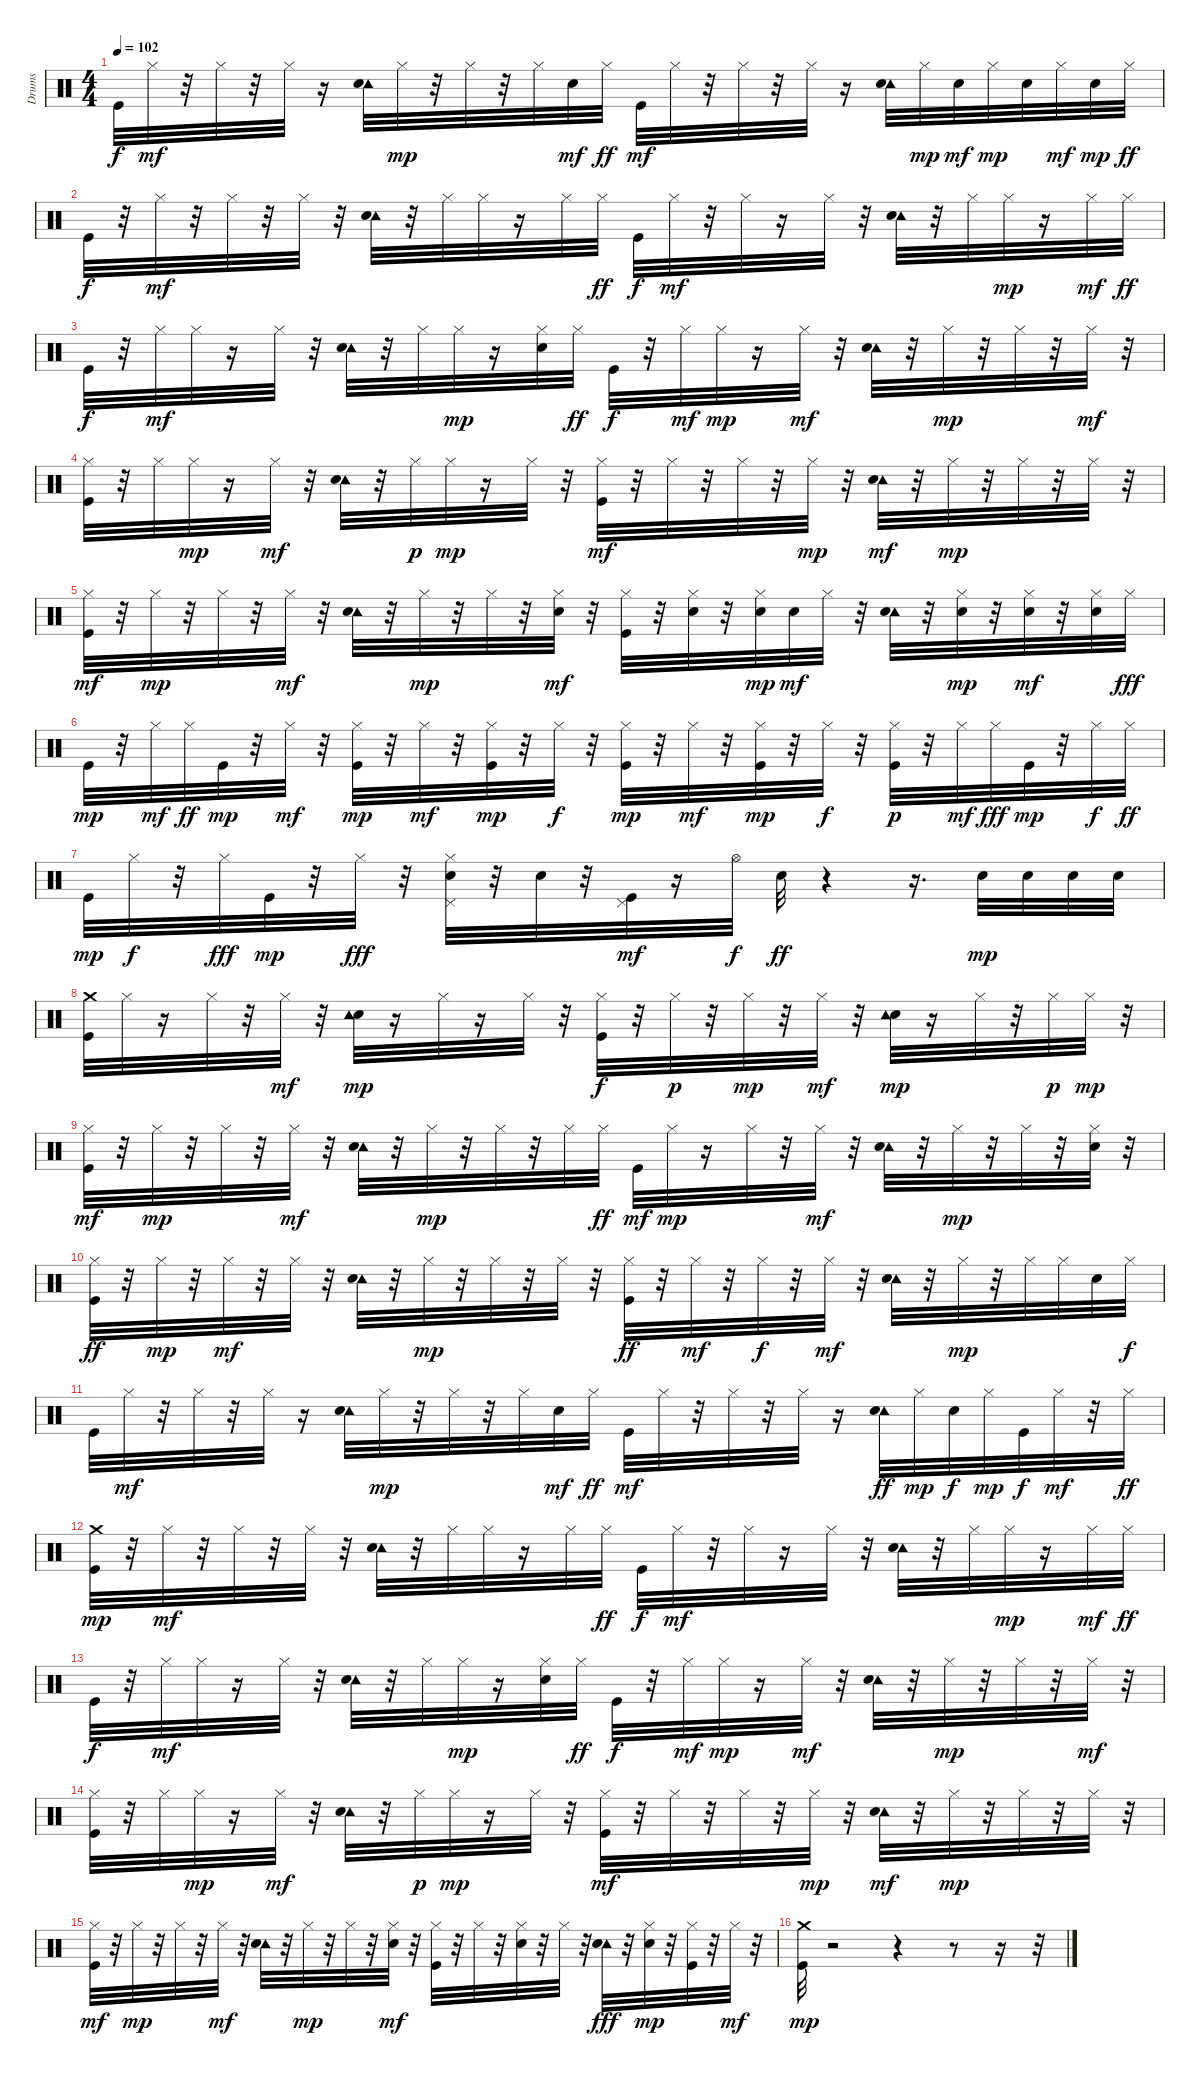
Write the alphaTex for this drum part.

\track ("Drums" "Drums") {instrument percussion}
\staff {score}
\articulation defaults
\ts (4 4)
\tempo 102
\clef neutral
\ks c "Kick (hit)".32{dy f} "Hi-Hat (closed)".32{dy mf}
r.32 "Hi-Hat (closed)".32 r.32 "Hi-Hat (closed)".32 r.16 ("Tambourine (hit)" "Electric Snare (hit)").32 "Hi-Hat (closed)".32{dy mp} r.32 "Hi-Hat (closed)".32 r.32 "Hi-Hat (closed)".32 "Snare (hit) 2".32{dy mf} "Hi-Hat (closed)".32{dy ff} "Kick (hit)".32{dy mf} "Hi-Hat (closed)".32 r.32 "Hi-Hat (closed)".32 r.32 "Hi-Hat (closed)".32 r.16 ("Tambourine (hit)" "Electric Snare (hit)").32 "Hi-Hat (closed)".32{dy mp} "Snare (hit) 2".32{dy mf} "Hi-Hat (closed)".32{dy mp} "Snare (hit) 2".32 "Hi-Hat (closed)".32{dy mf} "Snare (hit) 2".32{dy mp} "Hi-Hat (closed)".32{dy ff} |
"Kick (hit)".32{dy f} r.32 "Hi-Hat (closed)".32{dy mf} r.32 "Hi-Hat (closed)".32 r.32 "Hi-Hat (closed)".32 r.32 ("Tambourine (hit)" "Electric Snare (hit)").32 r.32 "Hi-Hat (closed)".32 "Hi-Hat (closed)".32 r.16 "Hi-Hat (closed)".32 "Hi-Hat (closed)".32{dy ff} "Kick (hit)".32{dy f} "Hi-Hat (closed)".32{dy mf} r.32 "Hi-Hat (closed)".32 r.16 "Hi-Hat (closed)".32 r.32 ("Tambourine (hit)" "Electric Snare (hit)").32 r.32 "Hi-Hat (closed)".32 "Hi-Hat (closed)".32{dy mp} r.16 "Hi-Hat (closed)".32{dy mf} "Hi-Hat (closed)".32{dy ff} |
"Kick (hit)".32{dy f} r.32 "Hi-Hat (closed)".32{dy mf} "Hi-Hat (closed)".32 r.16 "Hi-Hat (closed)".32 r.32 ("Tambourine (hit)" "Electric Snare (hit)").32 r.32 "Hi-Hat (closed)".32 "Hi-Hat (closed)".32{dy mp} r.16 ("Snare (hit) 2" "Hi-Hat (closed)").32 "Hi-Hat (closed)".32{dy ff} "Kick (hit)".32{dy f} r.32 "Hi-Hat (closed)".32{dy mf} "Hi-Hat (closed)".32{dy mp} r.16 "Hi-Hat (closed)".32{dy mf} r.32 ("Tambourine (hit)" "Electric Snare (hit)").32 r.32 "Hi-Hat (closed)".32{dy mp} r.32 "Hi-Hat (closed)".32 r.32 "Hi-Hat (closed)".32{dy mf} r.32 |
("Hi-Hat (closed)" "Kick (hit)").32 r.32 "Hi-Hat (closed)".32 "Hi-Hat (closed)".32{dy mp} r.16 "Hi-Hat (closed)".32{dy mf} r.32 ("Tambourine (hit)" "Electric Snare (hit)").32 r.32 "Hi-Hat (closed)".32{dy p} "Hi-Hat (closed)".32{dy mp} r.16 "Hi-Hat (closed)".32 r.32 ("Hi-Hat (closed)" "Kick (hit)").32{dy mf} r.32 "Hi-Hat (closed)".32 r.32 "Hi-Hat (closed)".32 r.32 "Hi-Hat (closed)".32{dy mp} r.32 ("Tambourine (hit)" "Electric Snare (hit)").32{dy mf} r.32 "Hi-Hat (closed)".32{dy mp} r.32 "Hi-Hat (closed)".32 r.32 "Hi-Hat (closed)".32 r.32 |
("Hi-Hat (closed)" "Kick (hit)").32{dy mf} r.32 "Hi-Hat (closed)".32{dy mp} r.32 "Hi-Hat (closed)".32 r.32 "Hi-Hat (closed)".32{dy mf} r.32 ("Tambourine (hit)" "Electric Snare (hit)").32 r.32 "Hi-Hat (closed)".32{dy mp} r.32 "Hi-Hat (closed)".32 r.32 ("Hi-Hat (closed)" "Electric Snare (hit)").32{dy mf} r.32 ("Hi-Hat (closed)" "Kick (hit)").32 r.32 ("Snare (hit) 2" "Hi-Hat (closed)").32 r.32 ("Snare (hit) 2" "Hi-Hat (closed)").32{dy mp} "Snare (hit) 2".32{dy mf} "Hi-Hat (closed)".32 r.32 ("Tambourine (hit)" "Electric Snare (hit)").32 r.32 ("Hi-Hat (closed)" "Snare (hit) 2").32{dy mp} r.32 ("Snare (hit) 2" "Hi-Hat (closed)").32{dy mf} r.32 ("Snare (hit) 2" "Hi-Hat (closed)").32 "Hi-Hat (closed)".32{dy fff} |
"Kick (hit)".32{dy mp} r.32 "Hi-Hat (closed)".32{dy mf} "Hi-Hat (closed)".32{dy ff} "Kick (hit)".32{dy mp} r.32 "Hi-Hat (closed)".32{dy mf} r.32 ("Hi-Hat (closed)" "Kick (hit)").32{dy mp} r.32 "Hi-Hat (closed)".32{dy mf} r.32 ("Hi-Hat (closed)" "Kick (hit)").32{dy mp} r.32 "Hi-Hat (closed)".32{dy f} r.32 ("Hi-Hat (closed)" "Kick (hit)").32{dy mp} r.32 "Hi-Hat (closed)".32{dy mf} r.32 ("Hi-Hat (closed)" "Kick (hit)").32{dy mp} r.32 "Hi-Hat (closed)".32{dy f} r.32 ("Hi-Hat (closed)" "Kick (hit)").32{dy p} r.32 "Hi-Hat (closed)".32{dy mf} "Hi-Hat (closed)".32{dy fff} "Kick (hit)".32{dy mp} r.32 "Hi-Hat (closed)".32{dy f} "Hi-Hat (closed)".32{dy ff} |
"Kick (hit)".32{dy mp} "Hi-Hat (closed)".32{dy f} r.32 "Hi-Hat (closed)".32{dy fff} "Kick (hit)".32{dy mp} r.32 "Hi-Hat (closed)".32{dy fff} r.32 ("Pedal Hi-Hat (hit)" "Hi-Hat (closed)" "Electric Snare (hit)").32 r.32 "Electric Snare (hit)".32 r.32 ("Pedal Hi-Hat (hit)" "Kick (hit)").32{dy mf} r.16 "Hi-Hat (open)".32{dy f} "Electric Snare (hit)".32{dy ff} r.4 r.16{d} "Snare (hit) 2".32{dy mp} "Snare (hit) 2".32 "Snare (hit) 2".32 "Snare (hit) 2".32 |
("Kick (hit)" "Crash medium (hit)").32 "Hi-Hat (closed)".32 r.16 "Hi-Hat (closed)".32 r.32 "Hi-Hat (closed)".32{dy mf} r.32 ("Electric Snare (hit)" "Tambourine (hit)").32{dy mp} r.16 "Hi-Hat (closed)".32 r.16 "Hi-Hat (closed)".32 r.32 ("Kick (hit)" "Hi-Hat (closed)").32{dy f} r.32 "Hi-Hat (closed)".32{dy p} r.32 "Hi-Hat (closed)".32{dy mp} r.32 "Hi-Hat (closed)".32{dy mf} r.32 ("Electric Snare (hit)" "Tambourine (hit)").32{dy mp} r.16 "Hi-Hat (closed)".32 r.32 "Hi-Hat (closed)".32{dy p} "Hi-Hat (closed)".32{dy mp} r.32 |
("Hi-Hat (closed)" "Kick (hit)").32{dy mf} r.32 "Hi-Hat (closed)".32{dy mp} r.32 "Hi-Hat (closed)".32 r.32 "Hi-Hat (closed)".32{dy mf} r.32 ("Tambourine (hit)" "Electric Snare (hit)").32 r.32 "Hi-Hat (closed)".32{dy mp} r.32 "Hi-Hat (closed)".32 r.32 "Hi-Hat (closed)".32 "Hi-Hat (closed)".32{dy ff} "Kick (hit)".32{dy mf} "Hi-Hat (closed)".32{dy mp} r.16 "Hi-Hat (closed)".32 r.32 "Hi-Hat (closed)".32{dy mf} r.32 ("Tambourine (hit)" "Electric Snare (hit)").32 r.32 "Hi-Hat (closed)".32{dy mp} r.32 "Hi-Hat (closed)".32 r.32 ("Hi-Hat (closed)" "Snare (hit) 2").32 r.32 |
("Kick (hit)" "Hi-Hat (closed)").32{dy ff} r.32 "Hi-Hat (closed)".32{dy mp} r.32 "Hi-Hat (closed)".32{dy mf} r.32 "Hi-Hat (closed)".32 r.32 ("Tambourine (hit)" "Electric Snare (hit)").32 r.32 "Hi-Hat (closed)".32{dy mp} r.32 "Hi-Hat (closed)".32 r.32 "Hi-Hat (closed)".32 r.32 ("Kick (hit)" "Hi-Hat (closed)").32{dy ff} r.32 "Hi-Hat (closed)".32{dy mf} r.32 "Hi-Hat (closed)".32{dy f} r.32 "Hi-Hat (closed)".32{dy mf} r.32 ("Tambourine (hit)" "Electric Snare (hit)").32 r.32 "Hi-Hat (closed)".32{dy mp} r.32 "Hi-Hat (closed)".32 "Hi-Hat (closed)".32 "Snare (hit) 2".32 "Hi-Hat (closed)".32{dy f} |
"Kick (hit)".32 "Hi-Hat (closed)".32{dy mf} r.32 "Hi-Hat (closed)".32 r.32 "Hi-Hat (closed)".32 r.16 ("Tambourine (hit)" "Electric Snare (hit)").32 "Hi-Hat (closed)".32{dy mp} r.32 "Hi-Hat (closed)".32 r.32 "Hi-Hat (closed)".32 "Snare (hit) 2".32{dy mf} "Hi-Hat (closed)".32{dy ff} "Kick (hit)".32{dy mf} "Hi-Hat (closed)".32 r.32 "Hi-Hat (closed)".32 r.32 "Hi-Hat (closed)".32 r.16 ("Tambourine (hit)" "Electric Snare (hit)").32{dy ff} "Hi-Hat (closed)".32{dy mp} "Electric Snare (hit)".32{dy f} "Hi-Hat (closed)".32{dy mp} "Kick (hit)".32{dy f} "Hi-Hat (closed)".32{dy mf} r.32 "Hi-Hat (closed)".32{dy ff} |
("Kick (hit)" "Crash medium (hit)").32{dy mp} r.32 "Hi-Hat (closed)".32{dy mf} r.32 "Hi-Hat (closed)".32 r.32 "Hi-Hat (closed)".32 r.32 ("Tambourine (hit)" "Electric Snare (hit)").32 r.32 "Hi-Hat (closed)".32 "Hi-Hat (closed)".32 r.16 "Hi-Hat (closed)".32 "Hi-Hat (closed)".32{dy ff} "Kick (hit)".32{dy f} "Hi-Hat (closed)".32{dy mf} r.32 "Hi-Hat (closed)".32 r.16 "Hi-Hat (closed)".32 r.32 ("Tambourine (hit)" "Electric Snare (hit)").32 r.32 "Hi-Hat (closed)".32 "Hi-Hat (closed)".32{dy mp} r.16 "Hi-Hat (closed)".32{dy mf} "Hi-Hat (closed)".32{dy ff} |
"Kick (hit)".32{dy f} r.32 "Hi-Hat (closed)".32{dy mf} "Hi-Hat (closed)".32 r.16 "Hi-Hat (closed)".32 r.32 ("Tambourine (hit)" "Electric Snare (hit)").32 r.32 "Hi-Hat (closed)".32 "Hi-Hat (closed)".32{dy mp} r.16 ("Snare (hit) 2" "Hi-Hat (closed)").32 "Hi-Hat (closed)".32{dy ff} "Kick (hit)".32{dy f} r.32 "Hi-Hat (closed)".32{dy mf} "Hi-Hat (closed)".32{dy mp} r.16 "Hi-Hat (closed)".32{dy mf} r.32 ("Tambourine (hit)" "Electric Snare (hit)").32 r.32 "Hi-Hat (closed)".32{dy mp} r.32 "Hi-Hat (closed)".32 r.32 "Hi-Hat (closed)".32{dy mf} r.32 |
("Hi-Hat (closed)" "Kick (hit)").32 r.32 "Hi-Hat (closed)".32 "Hi-Hat (closed)".32{dy mp} r.16 "Hi-Hat (closed)".32{dy mf} r.32 ("Tambourine (hit)" "Electric Snare (hit)").32 r.32 "Hi-Hat (closed)".32{dy p} "Hi-Hat (closed)".32{dy mp} r.16 "Hi-Hat (closed)".32 r.32 ("Hi-Hat (closed)" "Kick (hit)").32{dy mf} r.32 "Hi-Hat (closed)".32 r.32 "Hi-Hat (closed)".32 r.32 "Hi-Hat (closed)".32{dy mp} r.32 ("Tambourine (hit)" "Electric Snare (hit)").32{dy mf} r.32 "Hi-Hat (closed)".32{dy mp} r.32 "Hi-Hat (closed)".32 r.32 "Hi-Hat (closed)".32 r.32 |
("Hi-Hat (closed)" "Kick (hit)").32{dy mf} r.32 "Hi-Hat (closed)".32{dy mp} r.32 "Hi-Hat (closed)".32 r.32 "Hi-Hat (closed)".32{dy mf} r.32 ("Tambourine (hit)" "Electric Snare (hit)").32 r.32 "Hi-Hat (closed)".32{dy mp} r.32 "Hi-Hat (closed)".32 r.32 ("Hi-Hat (closed)" "Electric Snare (hit)").32{dy mf} r.32 ("Hi-Hat (closed)" "Kick (hit)").32 r.32 "Hi-Hat (closed)".32 r.32 ("Hi-Hat (closed)" "Electric Snare (hit)").32 r.32 "Hi-Hat (closed)".32 r.32 ("Tambourine (hit)" "Electric Snare (hit)").32{dy fff} r.32 ("Electric Snare (hit)" "Hi-Hat (closed)").32{dy mp} r.32 ("Hi-Hat (closed)" "Kick (hit)").32 r.32 "Hi-Hat (closed)".32{dy mf} r.32 |
("Crash medium (hit)" "Kick (hit)").32{dy mp} r.2 r.4 r.8 r.16 r.32
